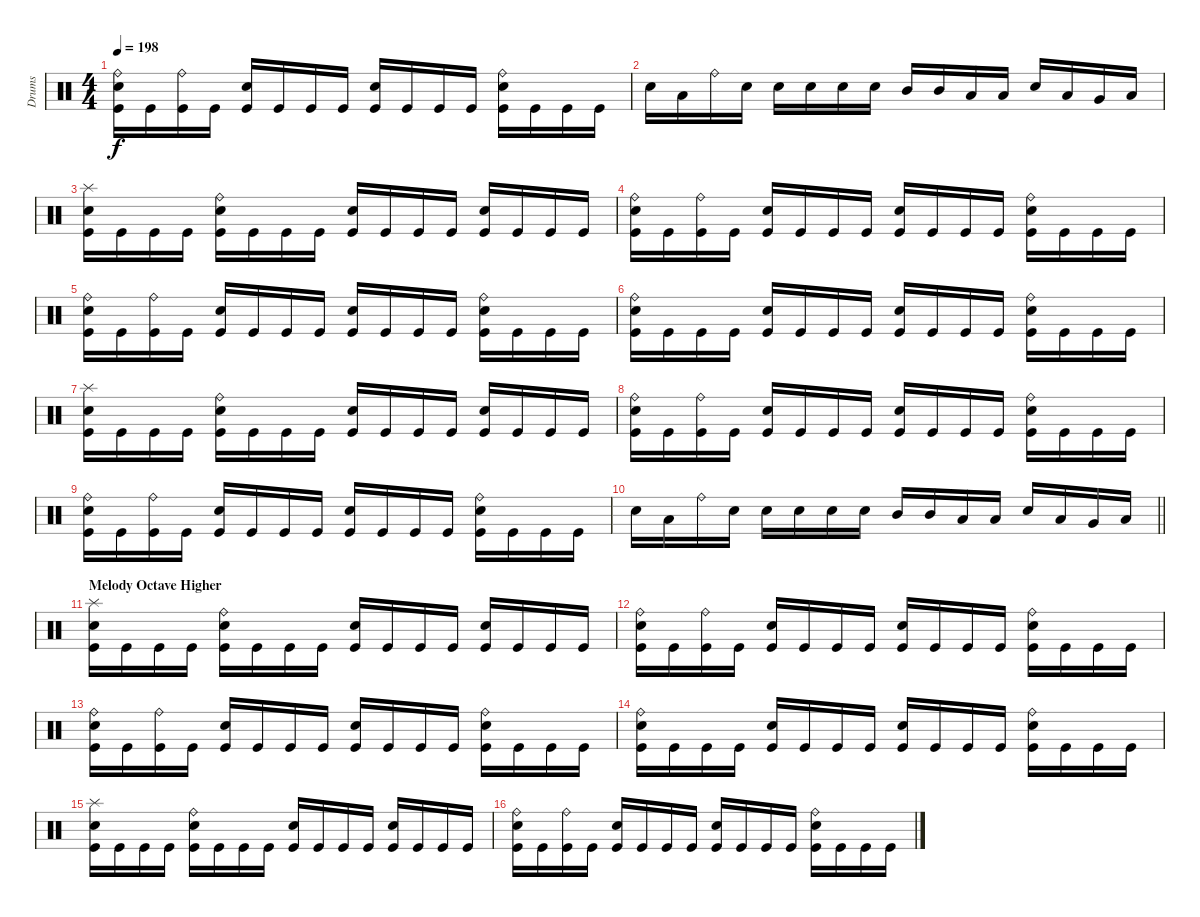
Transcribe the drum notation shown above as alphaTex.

\track ("Drums" "Drums") {instrument percussion}
\staff {score}
\articulation defaults
\ts (4 4)
\tempo 198
\clef neutral
\ks c
("Ride (bell)" "Electric Snare (hit)" "Kick (hit)").16{dy f} "Kick (hit)".16 ("Ride (bell)" "Kick (hit)").16 "Kick (hit)".16 ("Electric Snare (hit)" "Kick (hit)").16 "Kick (hit)".16 "Kick (hit)".16 "Kick (hit)".16 ("Electric Snare (hit)" "Kick (hit)").16 "Kick (hit)".16 "Kick (hit)".16 "Kick (hit)".16 ("Ride (bell)" "Electric Snare (hit)" "Kick (hit)").16 "Kick (hit)".16 "Kick (hit)".16 "Kick (hit)".16 |
"Electric Snare (hit)".16 "Low Tom (hit)".16 "Ride (bell)".16 "Electric Snare (hit)".16 "Electric Snare (hit)".16 "Electric Snare (hit)".16 "Electric Snare (hit)".16 "Electric Snare (hit)".16 "Mid Tom (hit)".16 "Mid Tom (hit)".16 "Low Tom (hit)".16 "Low Tom (hit)".16 "Electric Snare (hit)".16 "Low Tom (hit)".16 "Very Low Tom (hit)".16 "Low Floor Tom (hit)".16 |
("Splash (hit)" "Electric Snare (hit)" "Kick (hit)").16 "Kick (hit)".16 "Kick (hit)".16 "Kick (hit)".16 ("Ride (bell)" "Electric Snare (hit)" "Kick (hit)").16 "Kick (hit)".16 "Kick (hit)".16 "Kick (hit)".16 ("Electric Snare (hit)" "Kick (hit)").16 "Kick (hit)".16 "Kick (hit)".16 "Kick (hit)".16 ("Electric Snare (hit)" "Kick (hit)").16 "Kick (hit)".16 "Kick (hit)".16 "Kick (hit)".16 |
("Ride (bell)" "Electric Snare (hit)" "Kick (hit)").16 "Kick (hit)".16 ("Ride (bell)" "Kick (hit)").16 "Kick (hit)".16 ("Electric Snare (hit)" "Kick (hit)").16 "Kick (hit)".16 "Kick (hit)".16 "Kick (hit)".16 ("Electric Snare (hit)" "Kick (hit)").16 "Kick (hit)".16 "Kick (hit)".16 "Kick (hit)".16 ("Ride (bell)" "Electric Snare (hit)" "Kick (hit)").16 "Kick (hit)".16 "Kick (hit)".16 "Kick (hit)".16 |
("Ride (bell)" "Electric Snare (hit)" "Kick (hit)").16 "Kick (hit)".16 ("Ride (bell)" "Kick (hit)").16 "Kick (hit)".16 ("Electric Snare (hit)" "Kick (hit)").16 "Kick (hit)".16 "Kick (hit)".16 "Kick (hit)".16 ("Electric Snare (hit)" "Kick (hit)").16 "Kick (hit)".16 "Kick (hit)".16 "Kick (hit)".16 ("Ride (bell)" "Electric Snare (hit)" "Kick (hit)").16 "Kick (hit)".16 "Kick (hit)".16 "Kick (hit)".16 |
("Ride (bell)" "Electric Snare (hit)" "Kick (hit)").16 "Kick (hit)".16 "Kick (hit)".16 "Kick (hit)".16 ("Electric Snare (hit)" "Kick (hit)").16 "Kick (hit)".16 "Kick (hit)".16 "Kick (hit)".16 ("Electric Snare (hit)" "Kick (hit)").16 "Kick (hit)".16 "Kick (hit)".16 "Kick (hit)".16 ("Ride (bell)" "Electric Snare (hit)" "Kick (hit)").16 "Kick (hit)".16 "Kick (hit)".16 "Kick (hit)".16 |
("Splash (hit)" "Electric Snare (hit)" "Kick (hit)").16 "Kick (hit)".16 "Kick (hit)".16 "Kick (hit)".16 ("Ride (bell)" "Electric Snare (hit)" "Kick (hit)").16 "Kick (hit)".16 "Kick (hit)".16 "Kick (hit)".16 ("Electric Snare (hit)" "Kick (hit)").16 "Kick (hit)".16 "Kick (hit)".16 "Kick (hit)".16 ("Electric Snare (hit)" "Kick (hit)").16 "Kick (hit)".16 "Kick (hit)".16 "Kick (hit)".16 |
("Ride (bell)" "Electric Snare (hit)" "Kick (hit)").16 "Kick (hit)".16 ("Ride (bell)" "Kick (hit)").16 "Kick (hit)".16 ("Electric Snare (hit)" "Kick (hit)").16 "Kick (hit)".16 "Kick (hit)".16 "Kick (hit)".16 ("Electric Snare (hit)" "Kick (hit)").16 "Kick (hit)".16 "Kick (hit)".16 "Kick (hit)".16 ("Ride (bell)" "Electric Snare (hit)" "Kick (hit)").16 "Kick (hit)".16 "Kick (hit)".16 "Kick (hit)".16 |
("Ride (bell)" "Electric Snare (hit)" "Kick (hit)").16 "Kick (hit)".16 ("Ride (bell)" "Kick (hit)").16 "Kick (hit)".16 ("Electric Snare (hit)" "Kick (hit)").16 "Kick (hit)".16 "Kick (hit)".16 "Kick (hit)".16 ("Electric Snare (hit)" "Kick (hit)").16 "Kick (hit)".16 "Kick (hit)".16 "Kick (hit)".16 ("Ride (bell)" "Electric Snare (hit)" "Kick (hit)").16 "Kick (hit)".16 "Kick (hit)".16 "Kick (hit)".16 |
\barLineRight lightlight "Electric Snare (hit)".16 "Low Tom (hit)".16 "Ride (bell)".16 "Electric Snare (hit)".16 "Electric Snare (hit)".16 "Electric Snare (hit)".16 "Electric Snare (hit)".16 "Electric Snare (hit)".16 "Mid Tom (hit)".16 "Mid Tom (hit)".16 "Low Tom (hit)".16 "Low Tom (hit)".16 "Electric Snare (hit)".16 "Low Tom (hit)".16 "Very Low Tom (hit)".16 "Low Floor Tom (hit)".16
|
\section ("" "Melody Octave Higher")
("Splash (hit)" "Electric Snare (hit)" "Kick (hit)").16 "Kick (hit)".16 "Kick (hit)".16 "Kick (hit)".16 ("Ride (bell)" "Electric Snare (hit)" "Kick (hit)").16 "Kick (hit)".16 "Kick (hit)".16 "Kick (hit)".16 ("Electric Snare (hit)" "Kick (hit)").16 "Kick (hit)".16 "Kick (hit)".16 "Kick (hit)".16 ("Electric Snare (hit)" "Kick (hit)").16 "Kick (hit)".16 "Kick (hit)".16 "Kick (hit)".16 |
("Ride (bell)" "Electric Snare (hit)" "Kick (hit)").16 "Kick (hit)".16 ("Ride (bell)" "Kick (hit)").16 "Kick (hit)".16 ("Electric Snare (hit)" "Kick (hit)").16 "Kick (hit)".16 "Kick (hit)".16 "Kick (hit)".16 ("Electric Snare (hit)" "Kick (hit)").16 "Kick (hit)".16 "Kick (hit)".16 "Kick (hit)".16 ("Ride (bell)" "Electric Snare (hit)" "Kick (hit)").16 "Kick (hit)".16 "Kick (hit)".16 "Kick (hit)".16 |
("Ride (bell)" "Electric Snare (hit)" "Kick (hit)").16 "Kick (hit)".16 ("Ride (bell)" "Kick (hit)").16 "Kick (hit)".16 ("Electric Snare (hit)" "Kick (hit)").16 "Kick (hit)".16 "Kick (hit)".16 "Kick (hit)".16 ("Electric Snare (hit)" "Kick (hit)").16 "Kick (hit)".16 "Kick (hit)".16 "Kick (hit)".16 ("Ride (bell)" "Electric Snare (hit)" "Kick (hit)").16 "Kick (hit)".16 "Kick (hit)".16 "Kick (hit)".16 |
("Ride (bell)" "Electric Snare (hit)" "Kick (hit)").16 "Kick (hit)".16 "Kick (hit)".16 "Kick (hit)".16 ("Electric Snare (hit)" "Kick (hit)").16 "Kick (hit)".16 "Kick (hit)".16 "Kick (hit)".16 ("Electric Snare (hit)" "Kick (hit)").16 "Kick (hit)".16 "Kick (hit)".16 "Kick (hit)".16 ("Ride (bell)" "Electric Snare (hit)" "Kick (hit)").16 "Kick (hit)".16 "Kick (hit)".16 "Kick (hit)".16 |
("Splash (hit)" "Electric Snare (hit)" "Kick (hit)").16 "Kick (hit)".16 "Kick (hit)".16 "Kick (hit)".16 ("Ride (bell)" "Electric Snare (hit)" "Kick (hit)").16 "Kick (hit)".16 "Kick (hit)".16 "Kick (hit)".16 ("Electric Snare (hit)" "Kick (hit)").16 "Kick (hit)".16 "Kick (hit)".16 "Kick (hit)".16 ("Electric Snare (hit)" "Kick (hit)").16 "Kick (hit)".16 "Kick (hit)".16 "Kick (hit)".16 |
("Ride (bell)" "Electric Snare (hit)" "Kick (hit)").16 "Kick (hit)".16 ("Ride (bell)" "Kick (hit)").16 "Kick (hit)".16 ("Electric Snare (hit)" "Kick (hit)").16 "Kick (hit)".16 "Kick (hit)".16 "Kick (hit)".16 ("Electric Snare (hit)" "Kick (hit)").16 "Kick (hit)".16 "Kick (hit)".16 "Kick (hit)".16 ("Ride (bell)" "Electric Snare (hit)" "Kick (hit)").16 "Kick (hit)".16 "Kick (hit)".16 "Kick (hit)".16
